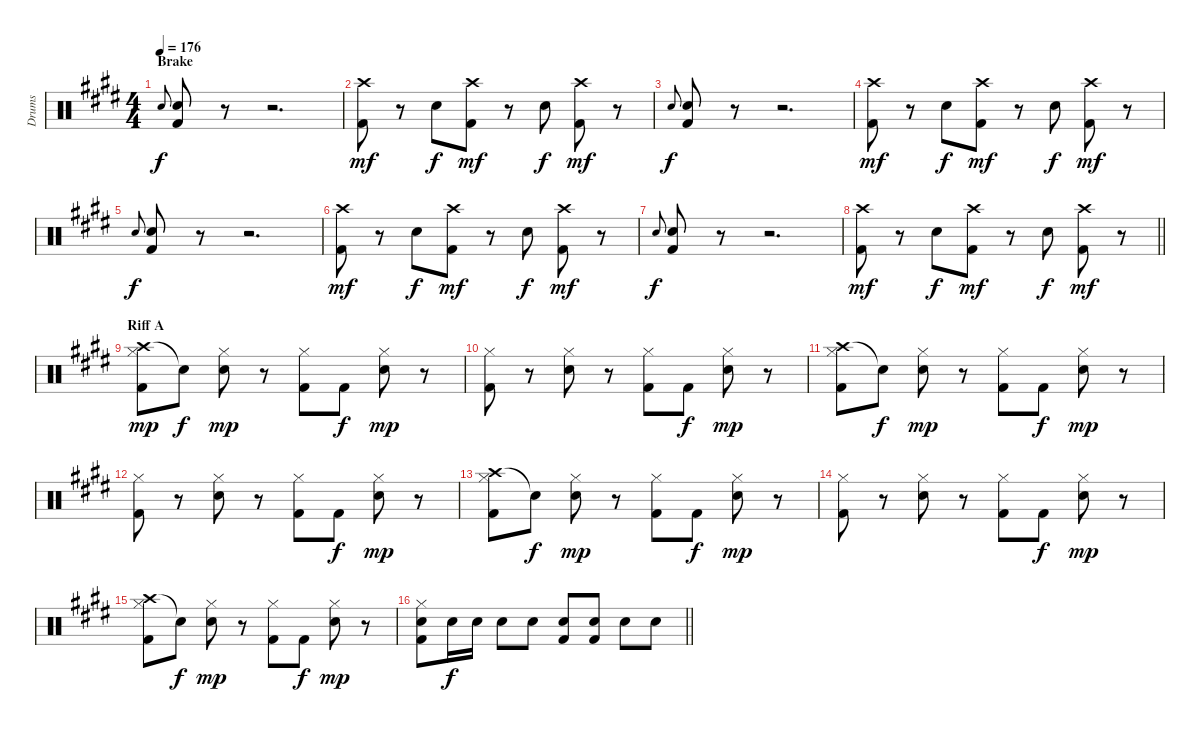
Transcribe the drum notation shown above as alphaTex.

\track ("Drums" "Drums") {instrument percussion}
\staff {score}
\articulation defaults
\ts (4 4)
\section ("" "Brake")
\tempo 176
\clef neutral
\ks e "Snare (hit) 2".8{gr onbeat dy f}
("Snare (hit) 2" "Kick (hit) 2").8 r.8 r.2{d} |
("Crash high (hit)" "Kick (hit) 2").8{dy mf} r.8 "Snare (hit) 2".8{dy f} ("Crash high (hit)" "Kick (hit) 2").8{dy mf} r.8 "Snare (hit) 2".8{dy f} ("Crash high (hit)" "Kick (hit) 2").8{dy mf} r.8 |
"Snare (hit) 2".8{gr onbeat dy f} ("Snare (hit) 2" "Kick (hit) 2").8 r.8 r.2{d} |
("Crash high (hit)" "Kick (hit) 2").8{dy mf} r.8 "Snare (hit) 2".8{dy f} ("Crash high (hit)" "Kick (hit) 2").8{dy mf} r.8 "Snare (hit) 2".8{dy f} ("Crash high (hit)" "Kick (hit) 2").8{dy mf} r.8 |
"Snare (hit) 2".8{gr onbeat dy f} ("Snare (hit) 2" "Kick (hit) 2").8 r.8 r.2{d} |
("Crash high (hit)" "Kick (hit) 2").8{dy mf} r.8 "Snare (hit) 2".8{dy f} ("Crash high (hit)" "Kick (hit) 2").8{dy mf} r.8 "Snare (hit) 2".8{dy f} ("Crash high (hit)" "Kick (hit) 2").8{dy mf} r.8 |
"Snare (hit) 2".8{gr onbeat dy f} ("Snare (hit) 2" "Kick (hit) 2").8 r.8 r.2{d} |
\barLineRight lightlight
("Crash high (hit)" "Kick (hit) 2").8{dy mf} r.8 "Snare (hit) 2".8{dy f} ("Crash high (hit)" "Kick (hit) 2").8{dy mf} r.8 "Snare (hit) 2".8{dy f} ("Crash high (hit)" "Kick (hit) 2").8{dy mf} r.8 |
\section ("" "Riff A")
("Crash high (hit)" "Hi-Hat (closed)" "Kick (hit) 2").8{dy mp} "Snare (hit)"{t}.8{dy f} ("Hi-Hat (closed)" "Snare (hit) 2").8{dy mp} r.8 ("Hi-Hat (closed)" "Kick (hit) 2").8 "Kick (hit) 2".8{dy f} ("Hi-Hat (closed)" "Snare (hit) 2").8{dy mp} r.8 |
("Hi-Hat (closed)" "Kick (hit) 2").8 r.8 ("Hi-Hat (closed)" "Snare (hit) 2").8 r.8 ("Hi-Hat (closed)" "Kick (hit) 2").8 "Kick (hit) 2".8{dy f} ("Hi-Hat (closed)" "Snare (hit) 2").8{dy mp} r.8 |
("Crash high (hit)" "Hi-Hat (closed)" "Kick (hit) 2").8 "Snare (hit)"{t}.8{dy f} ("Hi-Hat (closed)" "Snare (hit) 2").8{dy mp} r.8 ("Hi-Hat (closed)" "Kick (hit) 2").8 "Kick (hit) 2".8{dy f} ("Hi-Hat (closed)" "Snare (hit) 2").8{dy mp} r.8 |
("Hi-Hat (closed)" "Kick (hit) 2").8 r.8 ("Hi-Hat (closed)" "Snare (hit) 2").8 r.8 ("Hi-Hat (closed)" "Kick (hit) 2").8 "Kick (hit) 2".8{dy f} ("Hi-Hat (closed)" "Snare (hit) 2").8{dy mp} r.8 |
("Crash high (hit)" "Hi-Hat (closed)" "Kick (hit) 2").8 "Snare (hit)"{t}.8{dy f} ("Hi-Hat (closed)" "Snare (hit) 2").8{dy mp} r.8 ("Hi-Hat (closed)" "Kick (hit) 2").8 "Kick (hit) 2".8{dy f} ("Hi-Hat (closed)" "Snare (hit) 2").8{dy mp} r.8 |
("Hi-Hat (closed)" "Kick (hit) 2").8 r.8 ("Hi-Hat (closed)" "Snare (hit) 2").8 r.8 ("Hi-Hat (closed)" "Kick (hit) 2").8 "Kick (hit) 2".8{dy f} ("Hi-Hat (closed)" "Snare (hit) 2").8{dy mp} r.8 |
("Crash high (hit)" "Hi-Hat (closed)" "Kick (hit) 2").8 "Snare (hit)"{t}.8{dy f} ("Hi-Hat (closed)" "Snare (hit) 2").8{dy mp} r.8 ("Hi-Hat (closed)" "Kick (hit) 2").8 "Kick (hit) 2".8{dy f} ("Hi-Hat (closed)" "Snare (hit) 2").8{dy mp} r.8 |
\barLineRight lightlight
("Hi-Hat (closed)" "Snare (hit) 2" "Kick (hit) 2").8 "Snare (hit) 2".16{dy f} "Snare (hit) 2".16 "Snare (hit) 2".8 "Snare (hit) 2".8 ("Snare (hit) 2" "Kick (hit) 2").8 ("Snare (hit) 2" "Kick (hit) 2").8 "Snare (hit) 2".8 "Snare (hit) 2".8
